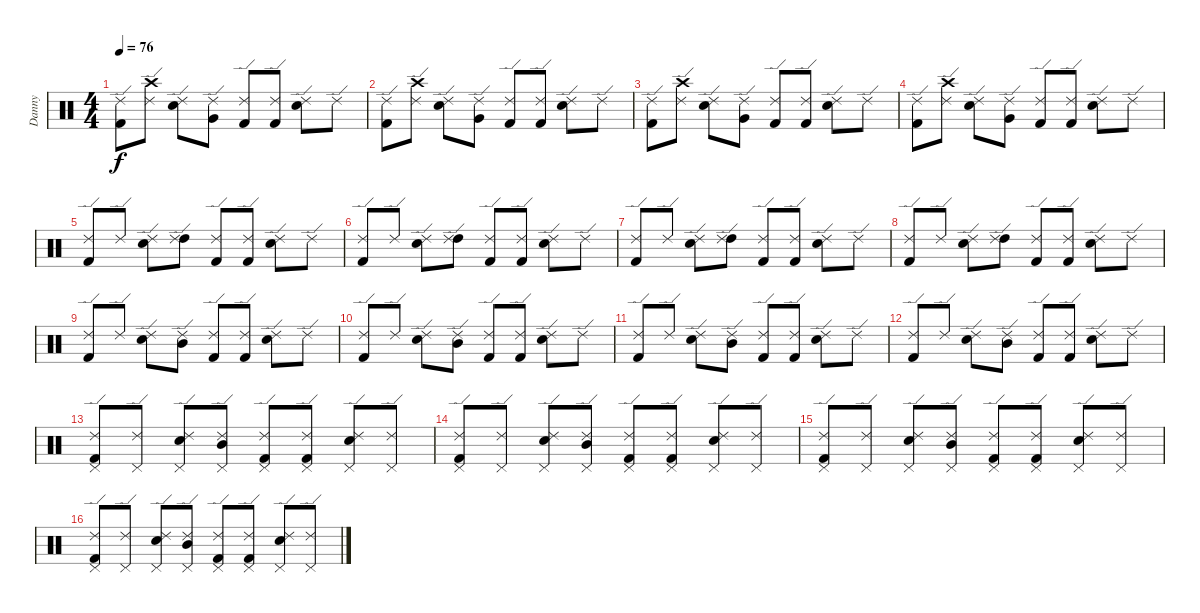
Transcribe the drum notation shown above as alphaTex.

\track ("Danny" "Danny") {instrument percussion}
\staff {score}
\articulation defaults
\ts (4 4)
\tempo 76
\clef neutral
\ks c
("Kick (hit) 2" "Ride (edge) 2").8{dy f} ("Ride (edge) 2" "Crash high (hit)").8 ("Electric Snare (hit)" "Ride (edge) 2").8 ("Very Low Tom (hit)" "Ride (edge) 2").8 ("Kick (hit) 2" "Ride (edge) 2").8 ("Kick (hit) 2" "Ride (edge) 2").8 ("Electric Snare (hit)" "Ride (edge) 2").8 "Ride (edge) 2".8 |
("Kick (hit) 2" "Ride (edge) 2").8 ("Ride (edge) 2" "Crash high (hit)").8 ("Electric Snare (hit)" "Ride (edge) 2").8 ("Very Low Tom (hit)" "Ride (edge) 2").8 ("Kick (hit) 2" "Ride (edge) 2").8 ("Kick (hit) 2" "Ride (edge) 2").8 ("Electric Snare (hit)" "Ride (edge) 2").8 "Ride (edge) 2".8 |
("Kick (hit) 2" "Ride (edge) 2").8 ("Ride (edge) 2" "Crash high (hit)").8 ("Electric Snare (hit)" "Ride (edge) 2").8 ("Very Low Tom (hit)" "Ride (edge) 2").8 ("Kick (hit) 2" "Ride (edge) 2").8 ("Kick (hit) 2" "Ride (edge) 2").8 ("Electric Snare (hit)" "Ride (edge) 2").8 "Ride (edge) 2".8 |
("Kick (hit) 2" "Ride (edge) 2").8 ("Ride (edge) 2" "Crash high (hit)").8 ("Electric Snare (hit)" "Ride (edge) 2").8 ("Very Low Tom (hit)" "Ride (edge) 2").8 ("Kick (hit) 2" "Ride (edge) 2").8 ("Kick (hit) 2" "Ride (edge) 2").8 ("Electric Snare (hit)" "Ride (edge) 2").8 "Ride (edge) 2".8 |
("Kick (hit) 2" "Ride (edge) 2").8 "Ride (edge) 2".8 ("Electric Snare (hit)" "Ride (edge) 2").8 ("High Tom (hit)" "Ride (edge) 2").8 ("Kick (hit) 2" "Ride (edge) 2").8 ("Kick (hit) 2" "Ride (edge) 2").8 ("Electric Snare (hit)" "Ride (edge) 2").8 "Ride (edge) 2".8 |
("Kick (hit) 2" "Ride (edge) 2").8 "Ride (edge) 2".8 ("Electric Snare (hit)" "Ride (edge) 2").8 ("High Tom (hit)" "Ride (edge) 2").8 ("Kick (hit) 2" "Ride (edge) 2").8 ("Kick (hit) 2" "Ride (edge) 2").8 ("Electric Snare (hit)" "Ride (edge) 2").8 "Ride (edge) 2".8 |
("Kick (hit) 2" "Ride (edge) 2").8 "Ride (edge) 2".8 ("Electric Snare (hit)" "Ride (edge) 2").8 ("High Tom (hit)" "Ride (edge) 2").8 ("Kick (hit) 2" "Ride (edge) 2").8 ("Kick (hit) 2" "Ride (edge) 2").8 ("Electric Snare (hit)" "Ride (edge) 2").8 "Ride (edge) 2".8 |
("Kick (hit) 2" "Ride (edge) 2").8 "Ride (edge) 2".8 ("Electric Snare (hit)" "Ride (edge) 2").8 ("High Tom (hit)" "Ride (edge) 2").8 ("Kick (hit) 2" "Ride (edge) 2").8 ("Kick (hit) 2" "Ride (edge) 2").8 ("Electric Snare (hit)" "Ride (edge) 2").8 "Ride (edge) 2".8 |
("Kick (hit) 2" "Ride (edge) 2").8 "Ride (edge) 2".8 ("Electric Snare (hit)" "Ride (edge) 2").8 ("Mid Tom (hit)" "Ride (edge) 2").8 ("Kick (hit) 2" "Ride (edge) 2").8 ("Kick (hit) 2" "Ride (edge) 2").8 ("Electric Snare (hit)" "Ride (edge) 2").8 "Ride (edge) 2".8 |
("Kick (hit) 2" "Ride (edge) 2").8 "Ride (edge) 2".8 ("Electric Snare (hit)" "Ride (edge) 2").8 ("Mid Tom (hit)" "Ride (edge) 2").8 ("Kick (hit) 2" "Ride (edge) 2").8 ("Kick (hit) 2" "Ride (edge) 2").8 ("Electric Snare (hit)" "Ride (edge) 2").8 "Ride (edge) 2".8 |
("Kick (hit) 2" "Ride (edge) 2").8 "Ride (edge) 2".8 ("Electric Snare (hit)" "Ride (edge) 2").8 ("Mid Tom (hit)" "Ride (edge) 2").8 ("Kick (hit) 2" "Ride (edge) 2").8 ("Kick (hit) 2" "Ride (edge) 2").8 ("Electric Snare (hit)" "Ride (edge) 2").8 "Ride (edge) 2".8 |
("Kick (hit) 2" "Ride (edge) 2").8 "Ride (edge) 2".8 ("Electric Snare (hit)" "Ride (edge) 2").8 ("Mid Tom (hit)" "Ride (edge) 2").8 ("Kick (hit) 2" "Ride (edge) 2").8 ("Kick (hit) 2" "Ride (edge) 2").8 ("Electric Snare (hit)" "Ride (edge) 2").8 "Ride (edge) 2".8 |
("Kick (hit) 2" "Ride (edge) 2" "Pedal Hi-Hat (hit)").8 ("Ride (edge) 2" "Pedal Hi-Hat (hit)").8 ("Electric Snare (hit)" "Ride (edge) 2" "Pedal Hi-Hat (hit)").8 ("Mid Tom (hit)" "Ride (edge) 2" "Pedal Hi-Hat (hit)").8 ("Kick (hit) 2" "Ride (edge) 2" "Pedal Hi-Hat (hit)").8 ("Kick (hit) 2" "Ride (edge) 2" "Pedal Hi-Hat (hit)").8 ("Electric Snare (hit)" "Ride (edge) 2" "Pedal Hi-Hat (hit)").8 ("Ride (edge) 2" "Pedal Hi-Hat (hit)").8 |
("Kick (hit) 2" "Ride (edge) 2" "Pedal Hi-Hat (hit)").8 ("Ride (edge) 2" "Pedal Hi-Hat (hit)").8 ("Electric Snare (hit)" "Ride (edge) 2" "Pedal Hi-Hat (hit)").8 ("Mid Tom (hit)" "Ride (edge) 2" "Pedal Hi-Hat (hit)").8 ("Kick (hit) 2" "Ride (edge) 2" "Pedal Hi-Hat (hit)").8 ("Kick (hit) 2" "Ride (edge) 2" "Pedal Hi-Hat (hit)").8 ("Electric Snare (hit)" "Ride (edge) 2" "Pedal Hi-Hat (hit)").8 ("Ride (edge) 2" "Pedal Hi-Hat (hit)").8 |
("Kick (hit) 2" "Ride (edge) 2" "Pedal Hi-Hat (hit)").8 ("Ride (edge) 2" "Pedal Hi-Hat (hit)").8 ("Electric Snare (hit)" "Ride (edge) 2" "Pedal Hi-Hat (hit)").8 ("Mid Tom (hit)" "Ride (edge) 2" "Pedal Hi-Hat (hit)").8 ("Kick (hit) 2" "Ride (edge) 2" "Pedal Hi-Hat (hit)").8 ("Kick (hit) 2" "Ride (edge) 2" "Pedal Hi-Hat (hit)").8 ("Electric Snare (hit)" "Ride (edge) 2" "Pedal Hi-Hat (hit)").8 ("Ride (edge) 2" "Pedal Hi-Hat (hit)").8 |
("Kick (hit) 2" "Ride (edge) 2" "Pedal Hi-Hat (hit)").8 ("Ride (edge) 2" "Pedal Hi-Hat (hit)").8 ("Electric Snare (hit)" "Ride (edge) 2" "Pedal Hi-Hat (hit)").8 ("Mid Tom (hit)" "Ride (edge) 2" "Pedal Hi-Hat (hit)").8 ("Kick (hit) 2" "Ride (edge) 2" "Pedal Hi-Hat (hit)").8 ("Kick (hit) 2" "Ride (edge) 2" "Pedal Hi-Hat (hit)").8 ("Electric Snare (hit)" "Ride (edge) 2" "Pedal Hi-Hat (hit)").8 ("Ride (edge) 2" "Pedal Hi-Hat (hit)").8
